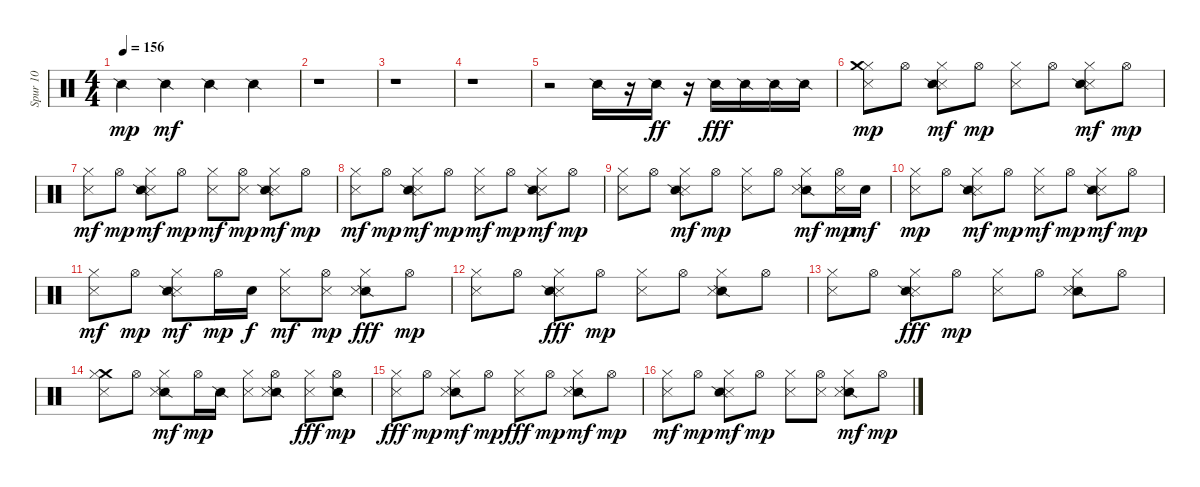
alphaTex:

\track ("Spur 10" "Spur 10") {instrument percussion}
\staff {score}
\articulation defaults
\ts (4 4)
\tempo 156
\clef neutral
\ks c "Snare (side stick) 2".4{dy mp} "Snare (side stick) 2".4{dy mf} "Snare (side stick) 2".4 "Snare (side stick) 2".4
|
r.1 |
r.1 |
r.1 |
r.2 "Snare (side stick) 2".16 r.16 "Snare (side stick) 2".16{dy ff} r.16 "Snare (side stick) 2".16{dy fff} "Snare (side stick) 2".16 "Snare (side stick) 2".16 "Snare (side stick) 2".16 |
("Metronome (hit)" "Hi-Hat (closed)" "Crash medium (hit)").8{dy mp} "Hi-Hat (open)".8 ("Metronome (hit)" "Snare (side stick) 2" "Hi-Hat (closed)").8{dy mf} "Hi-Hat (open)".8{dy mp} ("Metronome (hit)" "Hi-Hat (closed)").8 "Hi-Hat (open)".8 ("Metronome (hit)" "Snare (side stick) 2" "Hi-Hat (closed)").8{dy mf} "Hi-Hat (open)".8{dy mp} |
("Metronome (hit)" "Hi-Hat (closed)").8{dy mf} "Hi-Hat (open)".8{dy mp} ("Metronome (hit)" "Snare (side stick) 2" "Hi-Hat (closed)").8{dy mf} "Hi-Hat (open)".8{dy mp} ("Metronome (hit)" "Hi-Hat (closed)").8{dy mf} ("Metronome (hit)" "Hi-Hat (open)").8{dy mp} ("Metronome (hit)" "Snare (side stick) 2" "Hi-Hat (closed)").8{dy mf} "Hi-Hat (open)".8{dy mp} |
("Metronome (hit)" "Hi-Hat (closed)").8{dy mf} "Hi-Hat (open)".8{dy mp} ("Metronome (hit)" "Snare (side stick) 2" "Hi-Hat (closed)").8{dy mf} "Hi-Hat (open)".8{dy mp} ("Metronome (hit)" "Hi-Hat (closed)").8{dy mf} "Hi-Hat (open)".8{dy mp} ("Metronome (hit)" "Snare (side stick) 2" "Hi-Hat (closed)").8{dy mf} "Hi-Hat (open)".8{dy mp} |
("Metronome (hit)" "Hi-Hat (closed)").8 "Hi-Hat (open)".8 ("Metronome (hit)" "Snare (side stick) 2" "Hi-Hat (closed)").8{dy mf} "Hi-Hat (open)".8{dy mp} ("Metronome (hit)" "Hi-Hat (closed)").8 "Hi-Hat (open)".8 ("Snare (side stick) 2" "Metronome (hit)" "Hi-Hat (closed)").8{dy mf} ("Metronome (hit)" "Hi-Hat (open)").16{dy mp} "Electric Snare (hit)".16{dy mf} |
("Metronome (hit)" "Hi-Hat (closed)").8{dy mp} "Hi-Hat (open)".8 ("Metronome (hit)" "Snare (side stick) 2" "Hi-Hat (closed)").8{dy mf} "Hi-Hat (open)".8{dy mp} ("Metronome (hit)" "Hi-Hat (closed)").8{dy mf} "Hi-Hat (open)".8{dy mp} ("Metronome (hit)" "Snare (side stick) 2" "Hi-Hat (closed)").8{dy mf} "Hi-Hat (open)".8{dy mp} |
("Metronome (hit)" "Hi-Hat (closed)").8{dy mf} "Hi-Hat (open)".8{dy mp} ("Metronome (hit)" "Snare (side stick) 2" "Hi-Hat (closed)").8{dy mf} "Hi-Hat (open)".16{dy mp} "Electric Snare (hit)".16{dy f} ("Metronome (hit)" "Hi-Hat (closed)").8{dy mf} ("Metronome (hit)" "Hi-Hat (open)").8{dy mp} ("Snare (side stick) 2" "Metronome (hit)" "Hi-Hat (closed)").8{dy fff} "Hi-Hat (open)".8{dy mp} |
("Metronome (hit)" "Hi-Hat (closed)").8 "Hi-Hat (open)".8 ("Metronome (hit)" "Snare (side stick) 2" "Hi-Hat (closed)").8{dy fff} "Hi-Hat (open)".8{dy mp} ("Metronome (hit)" "Hi-Hat (closed)").8 "Hi-Hat (open)".8 ("Snare (side stick) 2" "Metronome (hit)" "Hi-Hat (closed)").8 "Hi-Hat (open)".8 |
("Metronome (hit)" "Hi-Hat (closed)").8 "Hi-Hat (open)".8 ("Metronome (hit)" "Snare (side stick) 2" "Hi-Hat (closed)").8{dy fff} "Hi-Hat (open)".8{dy mp} ("Metronome (hit)" "Hi-Hat (closed)").8 "Hi-Hat (open)".8 ("Snare (side stick) 2" "Metronome (hit)" "Hi-Hat (closed)").8 "Hi-Hat (open)".8 |
("Crash medium (hit)" "Metronome (hit)" "Hi-Hat (closed)").8 "Hi-Hat (open)".8 ("Snare (side stick) 2" "Metronome (hit)" "Hi-Hat (closed)").8{dy mf} "Hi-Hat (open)".16{dy mp} "Snare (side stick) 2".16 ("Metronome (hit)" "Hi-Hat (closed)").8 ("Snare (side stick) 2" "Metronome (hit)" "Hi-Hat (open)").8 ("Metronome (hit)" "Hi-Hat (closed)").8{dy fff} ("Snare (side stick) 2" "Hi-Hat (open)").8{dy mp} |
("Metronome (hit)" "Hi-Hat (closed)").8{dy fff} "Hi-Hat (open)".8{dy mp} ("Snare (side stick) 2" "Metronome (hit)" "Hi-Hat (closed)").8{dy mf} "Hi-Hat (open)".8{dy mp} ("Metronome (hit)" "Hi-Hat (closed)").8{dy fff} "Hi-Hat (open)".8{dy mp} ("Snare (side stick) 2" "Metronome (hit)" "Hi-Hat (closed)").8{dy mf} "Hi-Hat (open)".8{dy mp} |
("Metronome (hit)" "Hi-Hat (closed)").8{dy mf} "Hi-Hat (open)".8{dy mp} ("Metronome (hit)" "Snare (side stick) 2" "Hi-Hat (closed)").8{dy mf} "Hi-Hat (open)".8{dy mp} ("Metronome (hit)" "Hi-Hat (closed)").8 ("Metronome (hit)" "Hi-Hat (open)").8 ("Snare (side stick) 2" "Metronome (hit)" "Hi-Hat (closed)").8{dy mf} "Hi-Hat (open)".8{dy mp}
